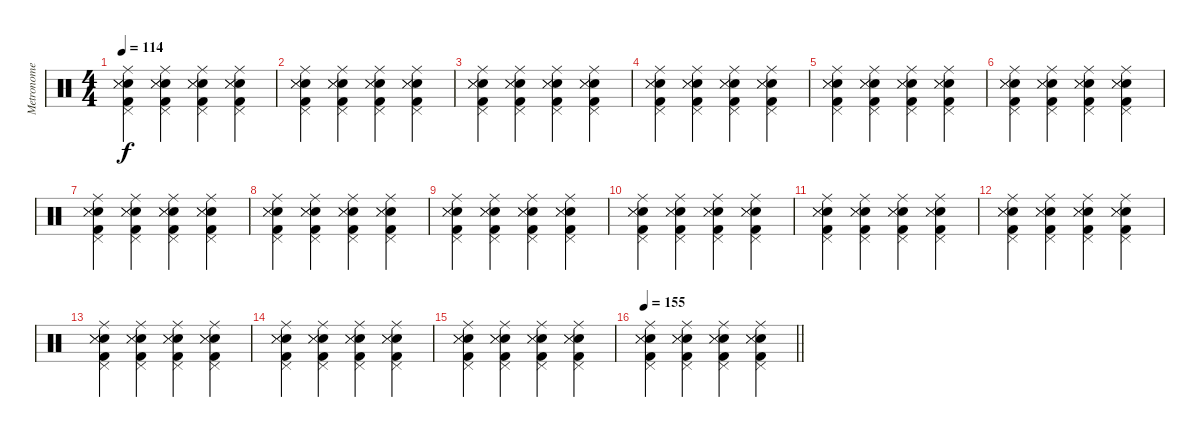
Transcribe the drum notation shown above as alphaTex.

\track ("Metronome" "Metronome") {mute instrument percussion}
\staff {score}
\articulation defaults
\ts (4 4)
\tempo 114
\clef neutral
\ks c
("Ride (middle)" "Pedal Hi-Hat (hit)" "Electric Snare (hit)" "Snare (side stick) 3" "Metronome (hit)" "Kick (hit) 2").4{dy f} ("Ride (middle)" "Pedal Hi-Hat (hit)" "Electric Snare (hit)" "Snare (side stick) 3" "Metronome (hit)" "Kick (hit) 2").4 ("Ride (middle)" "Pedal Hi-Hat (hit)" "Electric Snare (hit)" "Snare (side stick) 3" "Metronome (hit)" "Kick (hit) 2").4 ("Ride (middle)" "Pedal Hi-Hat (hit)" "Electric Snare (hit)" "Snare (side stick) 3" "Metronome (hit)" "Kick (hit) 2").4 |
("Ride (middle)" "Pedal Hi-Hat (hit)" "Electric Snare (hit)" "Snare (side stick) 3" "Metronome (hit)" "Kick (hit) 2").4 ("Ride (middle)" "Pedal Hi-Hat (hit)" "Electric Snare (hit)" "Snare (side stick) 3" "Metronome (hit)" "Kick (hit) 2").4 ("Ride (middle)" "Pedal Hi-Hat (hit)" "Electric Snare (hit)" "Snare (side stick) 3" "Metronome (hit)" "Kick (hit) 2").4 ("Ride (middle)" "Pedal Hi-Hat (hit)" "Electric Snare (hit)" "Snare (side stick) 3" "Metronome (hit)" "Kick (hit) 2").4 |
("Ride (middle)" "Pedal Hi-Hat (hit)" "Electric Snare (hit)" "Snare (side stick) 3" "Metronome (hit)" "Kick (hit) 2").4 ("Ride (middle)" "Pedal Hi-Hat (hit)" "Electric Snare (hit)" "Snare (side stick) 3" "Metronome (hit)" "Kick (hit) 2").4 ("Ride (middle)" "Pedal Hi-Hat (hit)" "Electric Snare (hit)" "Snare (side stick) 3" "Metronome (hit)" "Kick (hit) 2").4 ("Ride (middle)" "Pedal Hi-Hat (hit)" "Electric Snare (hit)" "Snare (side stick) 3" "Metronome (hit)" "Kick (hit) 2").4 |
("Ride (middle)" "Pedal Hi-Hat (hit)" "Electric Snare (hit)" "Snare (side stick) 3" "Metronome (hit)" "Kick (hit) 2").4 ("Ride (middle)" "Pedal Hi-Hat (hit)" "Electric Snare (hit)" "Snare (side stick) 3" "Metronome (hit)" "Kick (hit) 2").4 ("Ride (middle)" "Pedal Hi-Hat (hit)" "Electric Snare (hit)" "Snare (side stick) 3" "Metronome (hit)" "Kick (hit) 2").4 ("Ride (middle)" "Pedal Hi-Hat (hit)" "Electric Snare (hit)" "Snare (side stick) 3" "Metronome (hit)" "Kick (hit) 2").4 |
("Ride (middle)" "Pedal Hi-Hat (hit)" "Electric Snare (hit)" "Snare (side stick) 3" "Metronome (hit)" "Kick (hit) 2").4 ("Ride (middle)" "Pedal Hi-Hat (hit)" "Electric Snare (hit)" "Snare (side stick) 3" "Metronome (hit)" "Kick (hit) 2").4 ("Ride (middle)" "Pedal Hi-Hat (hit)" "Electric Snare (hit)" "Snare (side stick) 3" "Metronome (hit)" "Kick (hit) 2").4 ("Ride (middle)" "Pedal Hi-Hat (hit)" "Electric Snare (hit)" "Snare (side stick) 3" "Metronome (hit)" "Kick (hit) 2").4 |
("Ride (middle)" "Pedal Hi-Hat (hit)" "Electric Snare (hit)" "Snare (side stick) 3" "Metronome (hit)" "Kick (hit) 2").4 ("Ride (middle)" "Pedal Hi-Hat (hit)" "Electric Snare (hit)" "Snare (side stick) 3" "Metronome (hit)" "Kick (hit) 2").4 ("Ride (middle)" "Pedal Hi-Hat (hit)" "Electric Snare (hit)" "Snare (side stick) 3" "Metronome (hit)" "Kick (hit) 2").4 ("Ride (middle)" "Pedal Hi-Hat (hit)" "Electric Snare (hit)" "Snare (side stick) 3" "Metronome (hit)" "Kick (hit) 2").4 |
("Ride (middle)" "Pedal Hi-Hat (hit)" "Electric Snare (hit)" "Snare (side stick) 3" "Metronome (hit)" "Kick (hit) 2").4 ("Ride (middle)" "Pedal Hi-Hat (hit)" "Electric Snare (hit)" "Snare (side stick) 3" "Metronome (hit)" "Kick (hit) 2").4 ("Ride (middle)" "Pedal Hi-Hat (hit)" "Electric Snare (hit)" "Snare (side stick) 3" "Metronome (hit)" "Kick (hit) 2").4 ("Ride (middle)" "Pedal Hi-Hat (hit)" "Electric Snare (hit)" "Snare (side stick) 3" "Metronome (hit)" "Kick (hit) 2").4 |
("Ride (middle)" "Pedal Hi-Hat (hit)" "Electric Snare (hit)" "Snare (side stick) 3" "Metronome (hit)" "Kick (hit) 2").4 ("Ride (middle)" "Pedal Hi-Hat (hit)" "Electric Snare (hit)" "Snare (side stick) 3" "Metronome (hit)" "Kick (hit) 2").4 ("Ride (middle)" "Pedal Hi-Hat (hit)" "Electric Snare (hit)" "Snare (side stick) 3" "Metronome (hit)" "Kick (hit) 2").4 ("Ride (middle)" "Pedal Hi-Hat (hit)" "Electric Snare (hit)" "Snare (side stick) 3" "Metronome (hit)" "Kick (hit) 2").4 |
("Ride (middle)" "Pedal Hi-Hat (hit)" "Electric Snare (hit)" "Snare (side stick) 3" "Metronome (hit)" "Kick (hit) 2").4 ("Ride (middle)" "Pedal Hi-Hat (hit)" "Electric Snare (hit)" "Snare (side stick) 3" "Metronome (hit)" "Kick (hit) 2").4 ("Ride (middle)" "Pedal Hi-Hat (hit)" "Electric Snare (hit)" "Snare (side stick) 3" "Metronome (hit)" "Kick (hit) 2").4 ("Ride (middle)" "Pedal Hi-Hat (hit)" "Electric Snare (hit)" "Snare (side stick) 3" "Metronome (hit)" "Kick (hit) 2").4 |
("Ride (middle)" "Pedal Hi-Hat (hit)" "Electric Snare (hit)" "Snare (side stick) 3" "Metronome (hit)" "Kick (hit) 2").4 ("Ride (middle)" "Pedal Hi-Hat (hit)" "Electric Snare (hit)" "Snare (side stick) 3" "Metronome (hit)" "Kick (hit) 2").4 ("Ride (middle)" "Pedal Hi-Hat (hit)" "Electric Snare (hit)" "Snare (side stick) 3" "Metronome (hit)" "Kick (hit) 2").4 ("Ride (middle)" "Pedal Hi-Hat (hit)" "Electric Snare (hit)" "Snare (side stick) 3" "Metronome (hit)" "Kick (hit) 2").4 |
("Ride (middle)" "Pedal Hi-Hat (hit)" "Electric Snare (hit)" "Snare (side stick) 3" "Metronome (hit)" "Kick (hit) 2").4 ("Ride (middle)" "Pedal Hi-Hat (hit)" "Electric Snare (hit)" "Snare (side stick) 3" "Metronome (hit)" "Kick (hit) 2").4 ("Ride (middle)" "Pedal Hi-Hat (hit)" "Electric Snare (hit)" "Snare (side stick) 3" "Metronome (hit)" "Kick (hit) 2").4 ("Ride (middle)" "Pedal Hi-Hat (hit)" "Electric Snare (hit)" "Snare (side stick) 3" "Metronome (hit)" "Kick (hit) 2").4 |
("Ride (middle)" "Pedal Hi-Hat (hit)" "Electric Snare (hit)" "Snare (side stick) 3" "Metronome (hit)" "Kick (hit) 2").4 ("Ride (middle)" "Pedal Hi-Hat (hit)" "Electric Snare (hit)" "Snare (side stick) 3" "Metronome (hit)" "Kick (hit) 2").4 ("Ride (middle)" "Pedal Hi-Hat (hit)" "Electric Snare (hit)" "Snare (side stick) 3" "Metronome (hit)" "Kick (hit) 2").4 ("Ride (middle)" "Pedal Hi-Hat (hit)" "Electric Snare (hit)" "Snare (side stick) 3" "Metronome (hit)" "Kick (hit) 2").4 |
("Ride (middle)" "Pedal Hi-Hat (hit)" "Electric Snare (hit)" "Snare (side stick) 3" "Metronome (hit)" "Kick (hit) 2").4 ("Ride (middle)" "Pedal Hi-Hat (hit)" "Electric Snare (hit)" "Snare (side stick) 3" "Metronome (hit)" "Kick (hit) 2").4 ("Ride (middle)" "Pedal Hi-Hat (hit)" "Electric Snare (hit)" "Snare (side stick) 3" "Metronome (hit)" "Kick (hit) 2").4 ("Ride (middle)" "Pedal Hi-Hat (hit)" "Electric Snare (hit)" "Snare (side stick) 3" "Metronome (hit)" "Kick (hit) 2").4 |
("Ride (middle)" "Pedal Hi-Hat (hit)" "Electric Snare (hit)" "Snare (side stick) 3" "Metronome (hit)" "Kick (hit) 2").4 ("Ride (middle)" "Pedal Hi-Hat (hit)" "Electric Snare (hit)" "Snare (side stick) 3" "Metronome (hit)" "Kick (hit) 2").4 ("Ride (middle)" "Pedal Hi-Hat (hit)" "Electric Snare (hit)" "Snare (side stick) 3" "Metronome (hit)" "Kick (hit) 2").4 ("Ride (middle)" "Pedal Hi-Hat (hit)" "Electric Snare (hit)" "Snare (side stick) 3" "Metronome (hit)" "Kick (hit) 2").4 |
("Ride (middle)" "Pedal Hi-Hat (hit)" "Electric Snare (hit)" "Snare (side stick) 3" "Metronome (hit)" "Kick (hit) 2").4 ("Ride (middle)" "Pedal Hi-Hat (hit)" "Electric Snare (hit)" "Snare (side stick) 3" "Metronome (hit)" "Kick (hit) 2").4 ("Ride (middle)" "Pedal Hi-Hat (hit)" "Electric Snare (hit)" "Snare (side stick) 3" "Metronome (hit)" "Kick (hit) 2").4 ("Ride (middle)" "Pedal Hi-Hat (hit)" "Electric Snare (hit)" "Snare (side stick) 3" "Metronome (hit)" "Kick (hit) 2").4 |
\tempo 155
\barLineRight lightlight
("Ride (middle)" "Pedal Hi-Hat (hit)" "Electric Snare (hit)" "Snare (side stick) 3" "Metronome (hit)" "Kick (hit) 2").4 ("Ride (middle)" "Pedal Hi-Hat (hit)" "Electric Snare (hit)" "Snare (side stick) 3" "Metronome (hit)" "Kick (hit) 2").4 ("Ride (middle)" "Pedal Hi-Hat (hit)" "Electric Snare (hit)" "Snare (side stick) 3" "Metronome (hit)" "Kick (hit) 2").4 ("Ride (middle)" "Pedal Hi-Hat (hit)" "Electric Snare (hit)" "Snare (side stick) 3" "Metronome (hit)" "Kick (hit) 2").4
